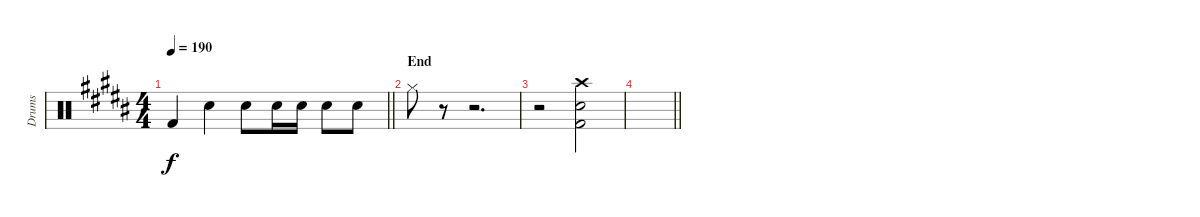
\track ("Drums" "Drums") {instrument percussion}
\staff {score}
\articulation defaults
\ts (4 4)
\tempo 190
\clef neutral
\barLineRight lightlight
\ks b "Kick (hit) 2".4{dy f} "Electric Snare (hit)".4 "Electric Snare (hit)".8 "Electric Snare (hit)".16 "Electric Snare (hit)".16 "Electric Snare (hit)".8 "Electric Snare (hit)".8
|
\section ("" "End")
"Hi-Hat (closed)".8 r.8 r.2{d} |
r.2 ("Crash high (hit)" "Electric Snare (hit)" "Kick (hit) 2").2 |
\barLineRight lightlight
